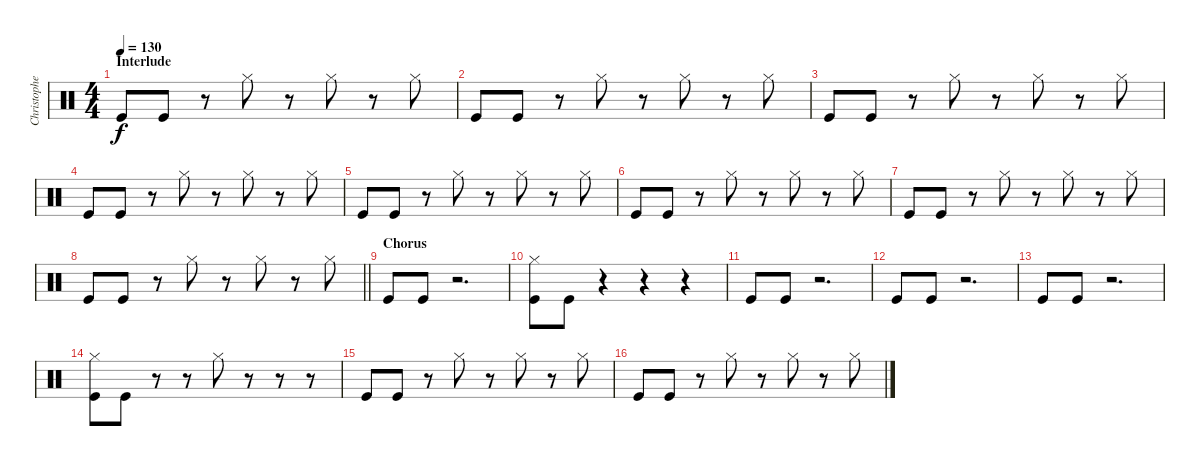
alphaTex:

\track ("Christopher - Drums" "Christophe") {instrument percussion}
\staff {score}
\articulation defaults
\ts (4 4)
\section ("" "Interlude")
\tempo 130
\clef neutral
\ks c "Kick (hit)".8{dy f} "Kick (hit)".8
r.8 "Hi-Hat (closed)".8 r.8 "Hi-Hat (closed)".8 r.8 "Hi-Hat (closed)".8 |
"Kick (hit)".8 "Kick (hit)".8 r.8 "Hi-Hat (closed)".8 r.8 "Hi-Hat (closed)".8 r.8 "Hi-Hat (closed)".8 |
"Kick (hit)".8 "Kick (hit)".8 r.8 "Hi-Hat (closed)".8 r.8 "Hi-Hat (closed)".8 r.8 "Hi-Hat (closed)".8 |
"Kick (hit)".8 "Kick (hit)".8 r.8 "Hi-Hat (closed)".8 r.8 "Hi-Hat (closed)".8 r.8 "Hi-Hat (closed)".8 |
"Kick (hit)".8 "Kick (hit)".8 r.8 "Hi-Hat (closed)".8 r.8 "Hi-Hat (closed)".8 r.8 "Hi-Hat (closed)".8 |
"Kick (hit)".8 "Kick (hit)".8 r.8 "Hi-Hat (closed)".8 r.8 "Hi-Hat (closed)".8 r.8 "Hi-Hat (closed)".8 |
"Kick (hit)".8 "Kick (hit)".8 r.8 "Hi-Hat (closed)".8 r.8 "Hi-Hat (closed)".8 r.8 "Hi-Hat (closed)".8 |
\barLineRight lightlight "Kick (hit)".8 "Kick (hit)".8
r.8 "Hi-Hat (closed)".8 r.8 "Hi-Hat (closed)".8 r.8 "Hi-Hat (closed)".8 |
\section ("" "Chorus")
"Kick (hit)".8 "Kick (hit)".8 r.2{d} |
("Hi-Hat (closed)" "Kick (hit)").8 "Kick (hit)".8 r.4 r.4 r.4 |
"Kick (hit)".8 "Kick (hit)".8 r.2{d} |
"Kick (hit)".8 "Kick (hit)".8 r.2{d} |
"Kick (hit)".8 "Kick (hit)".8 r.2{d} |
("Hi-Hat (closed)" "Kick (hit)").8 "Kick (hit)".8 r.8 r.8 "Hi-Hat (closed)".8 r.8 r.8 r.8 |
"Kick (hit)".8 "Kick (hit)".8 r.8 "Hi-Hat (closed)".8 r.8 "Hi-Hat (closed)".8 r.8 "Hi-Hat (closed)".8 |
"Kick (hit)".8 "Kick (hit)".8 r.8 "Hi-Hat (closed)".8 r.8 "Hi-Hat (closed)".8 r.8 "Hi-Hat (closed)".8
